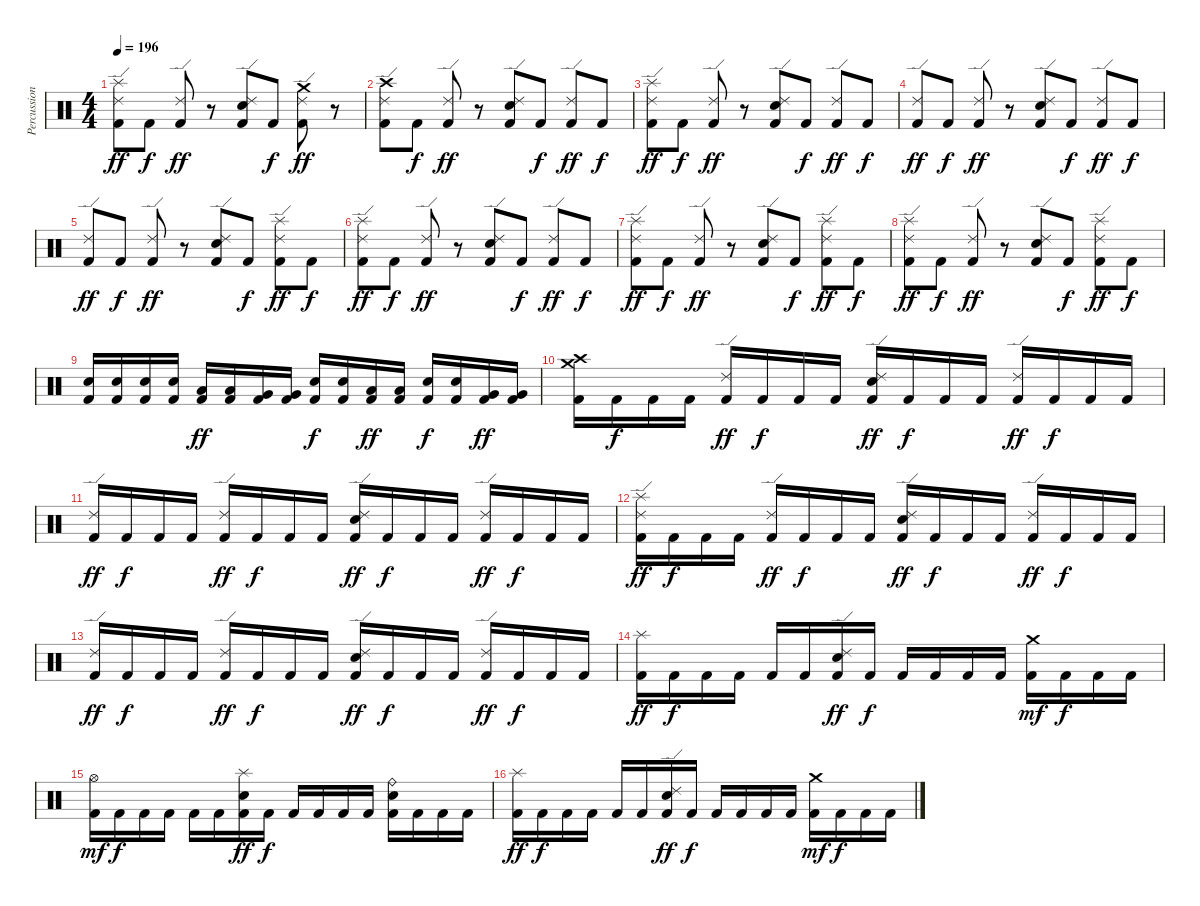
\track ("Percussions" "Percussion") {instrument percussion}
\staff {score}
\articulation defaults
\ts (4 4)
\tempo 196
\clef neutral
\ks c
("Splash (hit)" "Ride (edge) 2" "Kick (hit) 2").8{dy ff} "Kick (hit) 2".8{dy f} ("Ride (edge) 2" "Kick (hit) 2").8{dy ff} r.8 ("Ride (edge) 2" "Electric Snare (hit)" "Kick (hit) 2").8 "Kick (hit) 2".8{dy f} ("Crash medium (hit)" "Ride (edge) 2" "Kick (hit) 2").8{dy ff} r.8 |
("Crash high (hit)" "Ride (edge) 2" "Kick (hit) 2").8 "Kick (hit) 2".8{dy f} ("Ride (edge) 2" "Kick (hit) 2").8{dy ff} r.8 ("Ride (edge) 2" "Electric Snare (hit)" "Kick (hit) 2").8 "Kick (hit) 2".8{dy f} ("Ride (edge) 2" "Kick (hit) 2").8{dy ff} "Kick (hit) 2".8{dy f} |
("Splash (hit)" "Ride (edge) 2" "Kick (hit) 2").8{dy ff} "Kick (hit) 2".8{dy f} ("Ride (edge) 2" "Kick (hit) 2").8{dy ff} r.8 ("Ride (edge) 2" "Electric Snare (hit)" "Kick (hit) 2").8 "Kick (hit) 2".8{dy f} ("Ride (edge) 2" "Kick (hit) 2").8{dy ff} "Kick (hit) 2".8{dy f} |
("Ride (edge) 2" "Kick (hit) 2").8{dy ff} "Kick (hit) 2".8{dy f} ("Ride (edge) 2" "Kick (hit) 2").8{dy ff} r.8 ("Ride (edge) 2" "Electric Snare (hit)" "Kick (hit) 2").8 "Kick (hit) 2".8{dy f} ("Ride (edge) 2" "Kick (hit) 2").8{dy ff} "Kick (hit) 2".8{dy f} |
("Ride (edge) 2" "Kick (hit) 2").8{dy ff} "Kick (hit) 2".8{dy f} ("Ride (edge) 2" "Kick (hit) 2").8{dy ff} r.8 ("Ride (edge) 2" "Electric Snare (hit)" "Kick (hit) 2").8 "Kick (hit) 2".8{dy f} ("Splash (hit)" "Ride (edge) 2" "Kick (hit) 2").8{dy ff} "Kick (hit) 2".8{dy f} |
("Splash (hit)" "Ride (edge) 2" "Kick (hit) 2").8{dy ff} "Kick (hit) 2".8{dy f} ("Ride (edge) 2" "Kick (hit) 2").8{dy ff} r.8 ("Ride (edge) 2" "Electric Snare (hit)" "Kick (hit) 2").8 "Kick (hit) 2".8{dy f} ("Ride (edge) 2" "Kick (hit) 2").8{dy ff} "Kick (hit) 2".8{dy f} |
("Splash (hit)" "Ride (edge) 2" "Kick (hit) 2").8{dy ff} "Kick (hit) 2".8{dy f} ("Ride (edge) 2" "Kick (hit) 2").8{dy ff} r.8 ("Ride (edge) 2" "Electric Snare (hit)" "Kick (hit) 2").8 "Kick (hit) 2".8{dy f} ("Splash (hit)" "Ride (edge) 2" "Kick (hit) 2").8{dy ff} "Kick (hit) 2".8{dy f} |
("Splash (hit)" "Ride (edge) 2" "Kick (hit) 2").8{dy ff} "Kick (hit) 2".8{dy f} ("Ride (edge) 2" "Kick (hit) 2").8{dy ff} r.8 ("Ride (edge) 2" "Electric Snare (hit)" "Kick (hit) 2").8 "Kick (hit) 2".8{dy f} ("Splash (hit)" "Ride (edge) 2" "Kick (hit) 2").8{dy ff} "Kick (hit) 2".8{dy f} |
("Electric Snare (hit)" "Kick (hit) 2").16 ("Electric Snare (hit)" "Kick (hit) 2").16 ("Electric Snare (hit)" "Kick (hit) 2").16 ("Electric Snare (hit)" "Kick (hit) 2").16 ("Low Tom (hit)" "Kick (hit) 2").16{dy ff} ("Low Tom (hit)" "Kick (hit) 2").16 ("Very Low Tom (hit)" "Kick (hit) 2").16 ("Very Low Tom (hit)" "Kick (hit) 2").16 ("Electric Snare (hit)" "Kick (hit) 2").16{dy f} ("Electric Snare (hit)" "Kick (hit) 2").16 ("Low Tom (hit)" "Kick (hit) 2").16{dy ff} ("Low Tom (hit)" "Kick (hit) 2").16 ("Electric Snare (hit)" "Kick (hit) 2").16{dy f} ("Electric Snare (hit)" "Kick (hit) 2").16 ("Very Low Tom (hit)" "Kick (hit) 2").16{dy ff} ("Very Low Tom (hit)" "Kick (hit) 2").16 |
("Crash high (hit)" "Crash medium (hit)" "Kick (hit) 2").16 "Kick (hit) 2".16{dy f} "Kick (hit) 2".16 "Kick (hit) 2".16 ("Ride (edge) 2" "Kick (hit) 2").16{dy ff} "Kick (hit) 2".16{dy f} "Kick (hit) 2".16 "Kick (hit) 2".16 ("Ride (edge) 2" "Electric Snare (hit)" "Kick (hit) 2").16{dy ff} "Kick (hit) 2".16{dy f} "Kick (hit) 2".16 "Kick (hit) 2".16 ("Ride (edge) 2" "Kick (hit) 2").16{dy ff} "Kick (hit) 2".16{dy f} "Kick (hit) 2".16 "Kick (hit) 2".16 |
("Ride (edge) 2" "Kick (hit) 2").16{dy ff} "Kick (hit) 2".16{dy f} "Kick (hit) 2".16 "Kick (hit) 2".16 ("Ride (edge) 2" "Kick (hit) 2").16{dy ff} "Kick (hit) 2".16{dy f} "Kick (hit) 2".16 "Kick (hit) 2".16 ("Ride (edge) 2" "Electric Snare (hit)" "Kick (hit) 2").16{dy ff} "Kick (hit) 2".16{dy f} "Kick (hit) 2".16 "Kick (hit) 2".16 ("Ride (edge) 2" "Kick (hit) 2").16{dy ff} "Kick (hit) 2".16{dy f} "Kick (hit) 2".16 "Kick (hit) 2".16 |
("Splash (hit)" "Ride (edge) 2" "Kick (hit) 2").16{dy ff} "Kick (hit) 2".16{dy f} "Kick (hit) 2".16 "Kick (hit) 2".16 ("Ride (edge) 2" "Kick (hit) 2").16{dy ff} "Kick (hit) 2".16{dy f} "Kick (hit) 2".16 "Kick (hit) 2".16 ("Ride (edge) 2" "Electric Snare (hit)" "Kick (hit) 2").16{dy ff} "Kick (hit) 2".16{dy f} "Kick (hit) 2".16 "Kick (hit) 2".16 ("Ride (edge) 2" "Kick (hit) 2").16{dy ff} "Kick (hit) 2".16{dy f} "Kick (hit) 2".16 "Kick (hit) 2".16 |
("Ride (edge) 2" "Kick (hit) 2").16{dy ff} "Kick (hit) 2".16{dy f} "Kick (hit) 2".16 "Kick (hit) 2".16 ("Ride (edge) 2" "Kick (hit) 2").16{dy ff} "Kick (hit) 2".16{dy f} "Kick (hit) 2".16 "Kick (hit) 2".16 ("Ride (edge) 2" "Electric Snare (hit)" "Kick (hit) 2").16{dy ff} "Kick (hit) 2".16{dy f} "Kick (hit) 2".16 "Kick (hit) 2".16 ("Ride (edge) 2" "Kick (hit) 2").16{dy ff} "Kick (hit) 2".16{dy f} "Kick (hit) 2".16 "Kick (hit) 2".16 |
("Splash (hit)" "Kick (hit) 2").16{dy ff} "Kick (hit) 2".16{dy f} "Kick (hit) 2".16 "Kick (hit) 2".16 "Kick (hit) 2".16 "Kick (hit) 2".16 ("Ride (edge) 2" "Electric Snare (hit)" "Kick (hit) 2").16{dy ff} "Kick (hit) 2".16{dy f} "Kick (hit) 2".16 "Kick (hit) 2".16 "Kick (hit) 2".16 "Kick (hit) 2".16 ("Crash medium (hit)" "Kick (hit) 2").16{dy mf} "Kick (hit) 2".16{dy f} "Kick (hit) 2".16 "Kick (hit) 2".16 |
("Hi-Hat (open)" "Kick (hit) 2").16{dy mf} "Kick (hit) 2".16{dy f} "Kick (hit) 2".16 "Kick (hit) 2".16 "Kick (hit) 2".16 "Kick (hit) 2".16 ("Splash (hit)" "Electric Snare (hit)" "Kick (hit) 2").16{dy ff} "Kick (hit) 2".16{dy f} "Kick (hit) 2".16 "Kick (hit) 2".16 "Kick (hit) 2".16 "Kick (hit) 2".16 ("Ride (bell)" "Electric Snare (hit)" "Kick (hit) 2").16 "Kick (hit) 2".16 "Kick (hit) 2".16 "Kick (hit) 2".16 |
("Splash (hit)" "Kick (hit) 2").16{dy ff} "Kick (hit) 2".16{dy f} "Kick (hit) 2".16 "Kick (hit) 2".16 "Kick (hit) 2".16 "Kick (hit) 2".16 ("Ride (edge) 2" "Electric Snare (hit)" "Kick (hit) 2").16{dy ff} "Kick (hit) 2".16{dy f} "Kick (hit) 2".16 "Kick (hit) 2".16 "Kick (hit) 2".16 "Kick (hit) 2".16 ("Crash medium (hit)" "Kick (hit) 2").16{dy mf} "Kick (hit) 2".16{dy f} "Kick (hit) 2".16 "Kick (hit) 2".16
